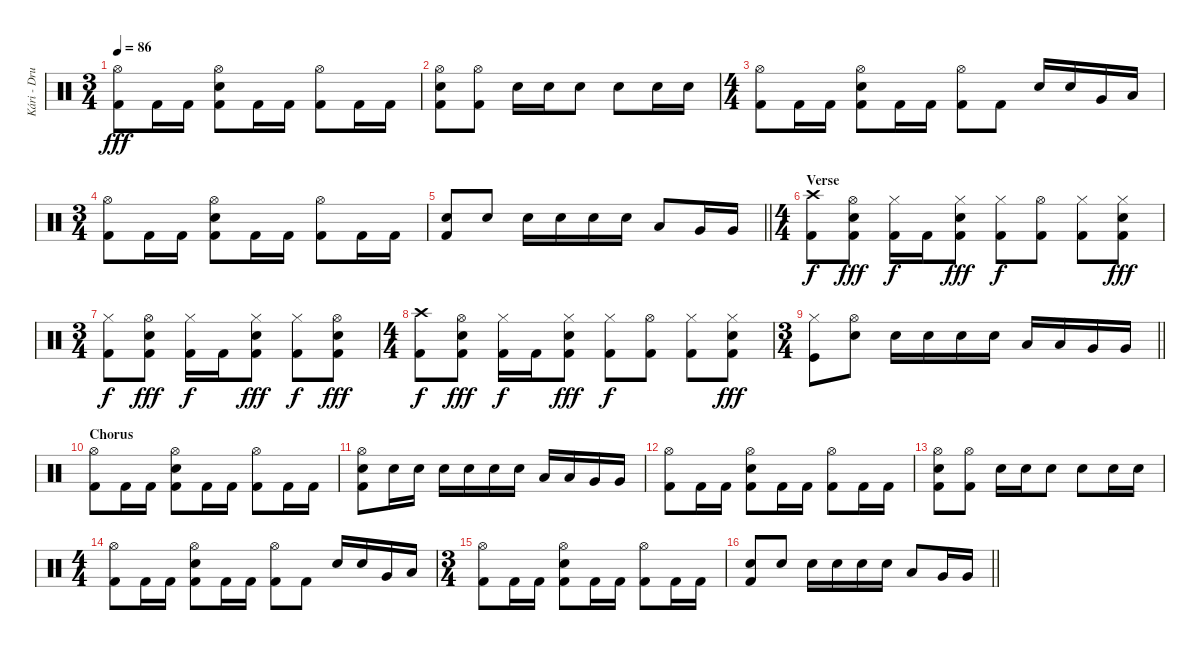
\track ("Kári - Drums" "Kári - Dru") {instrument percussion}
\staff {score}
\articulation defaults
\ts (3 4)
\tempo 86
\clef neutral
\ks c
("Hi-Hat (open)" "Kick (hit) 2").8{dy fff} "Kick (hit) 2".16 "Kick (hit) 2".16 ("Hi-Hat (open)" "Electric Snare (hit)" "Kick (hit) 2").8 "Kick (hit) 2".16 "Kick (hit) 2".16 ("Hi-Hat (open)" "Kick (hit) 2").8 "Kick (hit) 2".16 "Kick (hit) 2".16 |
("Hi-Hat (open)" "Electric Snare (hit)" "Kick (hit) 2").8 ("Hi-Hat (open)" "Kick (hit) 2").8 "Electric Snare (hit)".16 "Electric Snare (hit)".16 "Electric Snare (hit)".8 "Electric Snare (hit)".8 "Electric Snare (hit)".16 "Electric Snare (hit)".16 |
\ts (4 4)
("Hi-Hat (open)" "Kick (hit) 2").8 "Kick (hit) 2".16 "Kick (hit) 2".16 ("Hi-Hat (open)" "Electric Snare (hit)" "Kick (hit) 2").8 "Kick (hit) 2".16 "Kick (hit) 2".16 ("Hi-Hat (open)" "Kick (hit) 2").8 "Kick (hit) 2".8 "Electric Snare (hit)".16 "Electric Snare (hit)".16 "Very Low Tom (hit)".16 "Low Floor Tom (hit)".16 |
\ts (3 4)
("Hi-Hat (open)" "Kick (hit) 2").8 "Kick (hit) 2".16 "Kick (hit) 2".16 ("Hi-Hat (open)" "Electric Snare (hit)" "Kick (hit) 2").8 "Kick (hit) 2".16 "Kick (hit) 2".16 ("Hi-Hat (open)" "Kick (hit) 2").8 "Kick (hit) 2".16 "Kick (hit) 2".16 |
\barLineRight lightlight
("Electric Snare (hit)" "Kick (hit) 2").8 "Electric Snare (hit)".8 "Electric Snare (hit)".16 "Electric Snare (hit)".16 "Electric Snare (hit)".16 "Electric Snare (hit)".16 "Low Tom (hit)".8 "Very Low Tom (hit)".16 "Very Low Tom (hit)".16 |
\ts (4 4)
\section ("" "Verse")
("Crash high (hit)" "Kick (hit) 2").8{dy f} ("Hi-Hat (open)" "Electric Snare (hit)" "Kick (hit) 2").8{dy fff} ("Hi-Hat (closed)" "Kick (hit) 2").16{dy f} "Kick (hit) 2".16 ("Hi-Hat (closed)" "Electric Snare (hit)" "Kick (hit) 2").8{dy fff} ("Hi-Hat (closed)" "Kick (hit) 2").8{dy f} ("Hi-Hat (open)" "Kick (hit) 2").8 ("Hi-Hat (closed)" "Kick (hit) 2").8 ("Hi-Hat (closed)" "Electric Snare (hit)" "Kick (hit) 2").8{dy fff} |
\ts (3 4)
("Hi-Hat (closed)" "Kick (hit) 2").8{dy f} ("Hi-Hat (open)" "Electric Snare (hit)" "Kick (hit) 2").8{dy fff} ("Hi-Hat (closed)" "Kick (hit) 2").16{dy f} "Kick (hit) 2".16 ("Hi-Hat (closed)" "Electric Snare (hit)" "Kick (hit) 2").8{dy fff} ("Hi-Hat (closed)" "Kick (hit) 2").8{dy f} ("Hi-Hat (open)" "Electric Snare (hit)" "Kick (hit) 2").8{dy fff} |
\ts (4 4)
("Crash high (hit)" "Kick (hit) 2").8{dy f} ("Hi-Hat (open)" "Electric Snare (hit)" "Kick (hit) 2").8{dy fff} ("Hi-Hat (closed)" "Kick (hit) 2").16{dy f} "Kick (hit) 2".16 ("Hi-Hat (closed)" "Electric Snare (hit)" "Kick (hit) 2").8{dy fff} ("Hi-Hat (closed)" "Kick (hit) 2").8{dy f} ("Hi-Hat (open)" "Kick (hit) 2").8 ("Hi-Hat (closed)" "Kick (hit) 2").8 ("Hi-Hat (closed)" "Electric Snare (hit)" "Kick (hit) 2").8{dy fff} |
\ts (3 4)
\barLineRight lightlight
("Hi-Hat (closed)" "Kick (hit)").8 ("Hi-Hat (open)" "Electric Snare (hit)").8 "Electric Snare (hit)".16 "Electric Snare (hit)".16 "Electric Snare (hit)".16 "Electric Snare (hit)".16 "Low Tom (hit)".16 "Low Tom (hit)".16 "Very Low Tom (hit)".16 "Very Low Tom (hit)".16 |
\section ("" "Chorus")
("Hi-Hat (open)" "Kick (hit) 2").8 "Kick (hit) 2".16 "Kick (hit) 2".16 ("Hi-Hat (open)" "Electric Snare (hit)" "Kick (hit) 2").8 "Kick (hit) 2".16 "Kick (hit) 2".16 ("Hi-Hat (open)" "Kick (hit) 2").8 "Kick (hit) 2".16 "Kick (hit) 2".16 |
("Hi-Hat (open)" "Electric Snare (hit)" "Kick (hit) 2").8 "Electric Snare (hit)".16 "Electric Snare (hit)".16 "Electric Snare (hit)".16 "Electric Snare (hit)".16 "Electric Snare (hit)".16 "Electric Snare (hit)".16 "Low Tom (hit)".16 "Low Tom (hit)".16 "Very Low Tom (hit)".16 "Very Low Tom (hit)".16 |
("Hi-Hat (open)" "Kick (hit) 2").8 "Kick (hit) 2".16 "Kick (hit) 2".16 ("Hi-Hat (open)" "Electric Snare (hit)" "Kick (hit) 2").8 "Kick (hit) 2".16 "Kick (hit) 2".16 ("Hi-Hat (open)" "Kick (hit) 2").8 "Kick (hit) 2".16 "Kick (hit) 2".16 |
("Hi-Hat (open)" "Electric Snare (hit)" "Kick (hit) 2").8 ("Hi-Hat (open)" "Kick (hit) 2").8 "Electric Snare (hit)".16 "Electric Snare (hit)".16 "Electric Snare (hit)".8 "Electric Snare (hit)".8 "Electric Snare (hit)".16 "Electric Snare (hit)".16 |
\ts (4 4)
("Hi-Hat (open)" "Kick (hit) 2").8 "Kick (hit) 2".16 "Kick (hit) 2".16 ("Hi-Hat (open)" "Electric Snare (hit)" "Kick (hit) 2").8 "Kick (hit) 2".16 "Kick (hit) 2".16 ("Hi-Hat (open)" "Kick (hit) 2").8 "Kick (hit) 2".8 "Electric Snare (hit)".16 "Electric Snare (hit)".16 "Very Low Tom (hit)".16 "Low Floor Tom (hit)".16 |
\ts (3 4)
("Hi-Hat (open)" "Kick (hit) 2").8 "Kick (hit) 2".16 "Kick (hit) 2".16 ("Hi-Hat (open)" "Electric Snare (hit)" "Kick (hit) 2").8 "Kick (hit) 2".16 "Kick (hit) 2".16 ("Hi-Hat (open)" "Kick (hit) 2").8 "Kick (hit) 2".16 "Kick (hit) 2".16 |
\barLineRight lightlight
("Electric Snare (hit)" "Kick (hit) 2").8 "Electric Snare (hit)".8 "Electric Snare (hit)".16 "Electric Snare (hit)".16 "Electric Snare (hit)".16 "Electric Snare (hit)".16 "Low Tom (hit)".8 "Very Low Tom (hit)".16 "Very Low Tom (hit)".16
